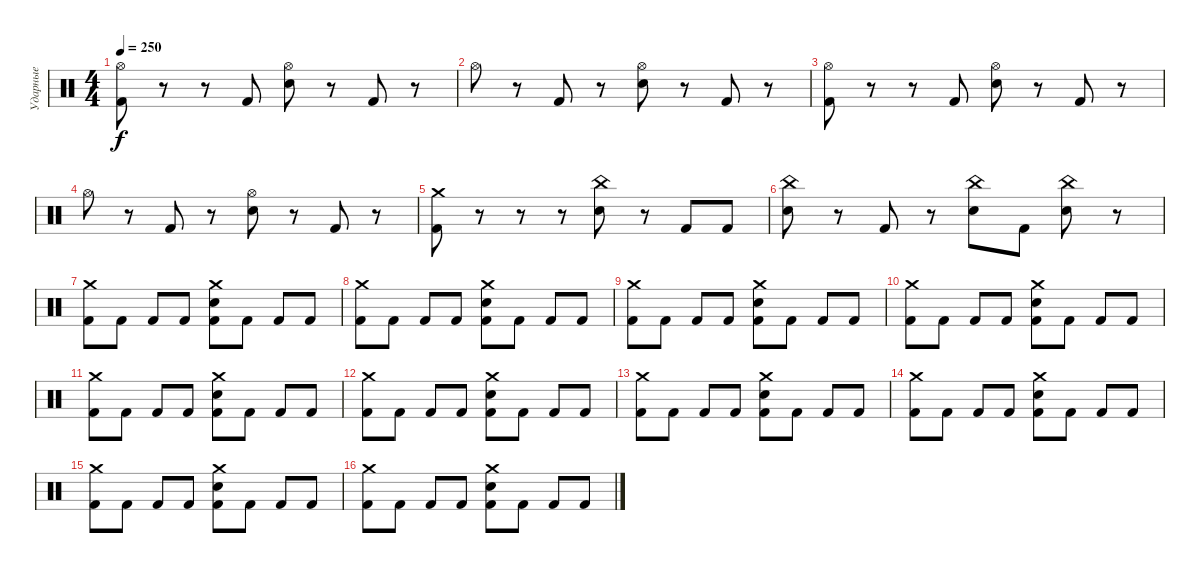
\track ("Ударные" "Ударные") {instrument percussion}
\staff {score}
\articulation defaults
\ts (4 4)
\tempo 250
\clef neutral
\ks c
("Hi-Hat (open)" "Kick (hit) 2").8{dy f} r.8 r.8 "Kick (hit) 2".8 ("Hi-Hat (open)" "Snare (hit) 2").8 r.8 "Kick (hit) 2".8 r.8 |
"Hi-Hat (open)".8 r.8 "Kick (hit) 2".8 r.8 ("Hi-Hat (open)" "Snare (hit) 2").8 r.8 "Kick (hit) 2".8 r.8 |
("Hi-Hat (open)" "Kick (hit) 2").8 r.8 r.8 "Kick (hit) 2".8 ("Hi-Hat (open)" "Snare (hit) 2").8 r.8 "Kick (hit) 2".8 r.8 |
"Hi-Hat (open)".8 r.8 "Kick (hit) 2".8 r.8 ("Hi-Hat (open)" "Snare (hit) 2").8 r.8 "Kick (hit) 2".8 r.8 |
("Crash medium (hit)" "Kick (hit) 2").8 r.8 r.8 r.8 ("Snare (hit) 2" "China (hit)").8 r.8 "Kick (hit) 2".8 "Kick (hit) 2".8 |
("Snare (hit) 2" "China (hit)").8 r.8 "Kick (hit) 2".8 r.8 ("Snare (hit) 2" "China (hit)").8 "Kick (hit) 2".8 ("Snare (hit) 2" "China (hit)").8 r.8 |
("Crash medium (hit)" "Kick (hit) 2").8 "Kick (hit) 2".8 "Kick (hit) 2".8 "Kick (hit) 2".8 ("Crash medium (hit)" "Snare (hit) 2" "Kick (hit) 2").8 "Kick (hit) 2".8 "Kick (hit) 2".8 "Kick (hit) 2".8 |
("Crash medium (hit)" "Kick (hit) 2").8 "Kick (hit) 2".8 "Kick (hit) 2".8 "Kick (hit) 2".8 ("Crash medium (hit)" "Snare (hit) 2" "Kick (hit) 2").8 "Kick (hit) 2".8 "Kick (hit) 2".8 "Kick (hit) 2".8 |
("Crash medium (hit)" "Kick (hit) 2").8 "Kick (hit) 2".8 "Kick (hit) 2".8 "Kick (hit) 2".8 ("Crash medium (hit)" "Snare (hit) 2" "Kick (hit) 2").8 "Kick (hit) 2".8 "Kick (hit) 2".8 "Kick (hit) 2".8 |
("Crash medium (hit)" "Kick (hit) 2").8 "Kick (hit) 2".8 "Kick (hit) 2".8 "Kick (hit) 2".8 ("Crash medium (hit)" "Snare (hit) 2" "Kick (hit) 2").8 "Kick (hit) 2".8 "Kick (hit) 2".8 "Kick (hit) 2".8 |
("Crash medium (hit)" "Kick (hit) 2").8 "Kick (hit) 2".8 "Kick (hit) 2".8 "Kick (hit) 2".8 ("Crash medium (hit)" "Snare (hit) 2" "Kick (hit) 2").8 "Kick (hit) 2".8 "Kick (hit) 2".8 "Kick (hit) 2".8 |
("Crash medium (hit)" "Kick (hit) 2").8 "Kick (hit) 2".8 "Kick (hit) 2".8 "Kick (hit) 2".8 ("Crash medium (hit)" "Snare (hit) 2" "Kick (hit) 2").8 "Kick (hit) 2".8 "Kick (hit) 2".8 "Kick (hit) 2".8 |
("Crash medium (hit)" "Kick (hit) 2").8 "Kick (hit) 2".8 "Kick (hit) 2".8 "Kick (hit) 2".8 ("Crash medium (hit)" "Snare (hit) 2" "Kick (hit) 2").8 "Kick (hit) 2".8 "Kick (hit) 2".8 "Kick (hit) 2".8 |
("Crash medium (hit)" "Kick (hit) 2").8 "Kick (hit) 2".8 "Kick (hit) 2".8 "Kick (hit) 2".8 ("Crash medium (hit)" "Snare (hit) 2" "Kick (hit) 2").8 "Kick (hit) 2".8 "Kick (hit) 2".8 "Kick (hit) 2".8 |
("Crash medium (hit)" "Kick (hit) 2").8 "Kick (hit) 2".8 "Kick (hit) 2".8 "Kick (hit) 2".8 ("Crash medium (hit)" "Snare (hit) 2" "Kick (hit) 2").8 "Kick (hit) 2".8 "Kick (hit) 2".8 "Kick (hit) 2".8 |
("Crash medium (hit)" "Kick (hit) 2").8 "Kick (hit) 2".8 "Kick (hit) 2".8 "Kick (hit) 2".8 ("Crash medium (hit)" "Snare (hit) 2" "Kick (hit) 2").8 "Kick (hit) 2".8 "Kick (hit) 2".8 "Kick (hit) 2".8
